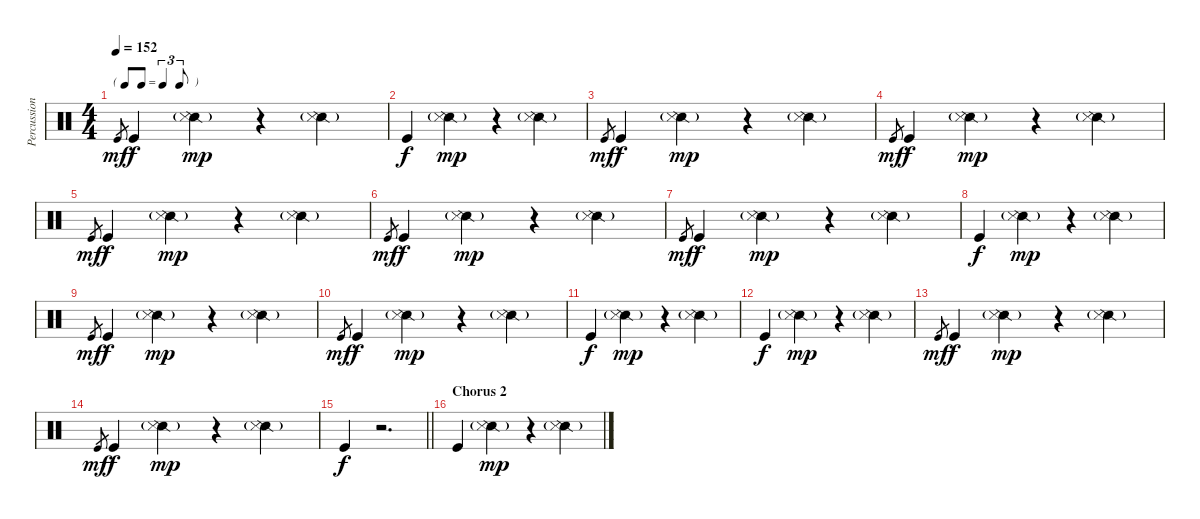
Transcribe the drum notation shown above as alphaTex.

\track ("Percussion" "Percussion") {instrument percussion}
\staff {score}
\articulation defaults
\ts (4 4)
\tf triplet8th
\tempo 152
\clef neutral
\ks c "Kick (hit)".8{gr dy mf} "Kick (hit)".4{dy f}
("Snare (side stick) 2"{g} "Snare (side stick) 3").4{dy mp} r.4 ("Snare (side stick) 2"{g} "Snare (side stick) 3").4 |
"Kick (hit)".4{dy f} ("Snare (side stick) 2"{g} "Snare (side stick) 3").4{dy mp} r.4 ("Snare (side stick) 2"{g} "Snare (side stick) 3").4 |
"Kick (hit)".8{gr dy mf} "Kick (hit)".4{dy f} ("Snare (side stick) 2"{g} "Snare (side stick) 3").4{dy mp} r.4 ("Snare (side stick) 2"{g} "Snare (side stick) 3").4 |
"Kick (hit)".8{gr dy mf} "Kick (hit)".4{dy f} ("Snare (side stick) 2"{g} "Snare (side stick) 3").4{dy mp} r.4 ("Snare (side stick) 2"{g} "Snare (side stick) 3").4 |
"Kick (hit)".8{gr dy mf} "Kick (hit)".4{dy f} ("Snare (side stick) 2"{g} "Snare (side stick) 3").4{dy mp} r.4 ("Snare (side stick) 2"{g} "Snare (side stick) 3").4 |
"Kick (hit)".8{gr dy mf} "Kick (hit)".4{dy f} ("Snare (side stick) 2"{g} "Snare (side stick) 3").4{dy mp} r.4 ("Snare (side stick) 2"{g} "Snare (side stick) 3").4 |
"Kick (hit)".8{gr dy mf} "Kick (hit)".4{dy f} ("Snare (side stick) 2"{g} "Snare (side stick) 3").4{dy mp} r.4 ("Snare (side stick) 2"{g} "Snare (side stick) 3").4 |
"Kick (hit)".4{dy f} ("Snare (side stick) 2"{g} "Snare (side stick) 3").4{dy mp} r.4 ("Snare (side stick) 2"{g} "Snare (side stick) 3").4 |
"Kick (hit)".8{gr dy mf} "Kick (hit)".4{dy f} ("Snare (side stick) 2"{g} "Snare (side stick) 3").4{dy mp} r.4 ("Snare (side stick) 2"{g} "Snare (side stick) 3").4 |
"Kick (hit)".8{gr dy mf} "Kick (hit)".4{dy f volume 6} ("Snare (side stick) 2"{g} "Snare (side stick) 3").4{dy mp} r.4 ("Snare (side stick) 2"{g} "Snare (side stick) 3").4 |
"Kick (hit)".4{dy f} ("Snare (side stick) 2"{g} "Snare (side stick) 3").4{dy mp} r.4 ("Snare (side stick) 2"{g} "Snare (side stick) 3").4 |
"Kick (hit)".4{dy f} ("Snare (side stick) 2"{g} "Snare (side stick) 3").4{dy mp} r.4 ("Snare (side stick) 2"{g} "Snare (side stick) 3").4 |
"Kick (hit)".8{gr dy mf} "Kick (hit)".4{dy f} ("Snare (side stick) 2"{g} "Snare (side stick) 3").4{dy mp} r.4 ("Snare (side stick) 2"{g} "Snare (side stick) 3").4 |
"Kick (hit)".8{gr dy mf} "Kick (hit)".4{dy f} ("Snare (side stick) 2"{g} "Snare (side stick) 3").4{dy mp} r.4 ("Snare (side stick) 2"{g} "Snare (side stick) 3").4 |
\barLineRight lightlight "Kick (hit)".4{dy f}
r.2{d} |
\section ("" "Chorus 2")
"Kick (hit)".4{volume 9} ("Snare (side stick) 2"{g} "Snare (side stick) 3").4{dy mp} r.4 ("Snare (side stick) 2"{g} "Snare (side stick) 3").4
